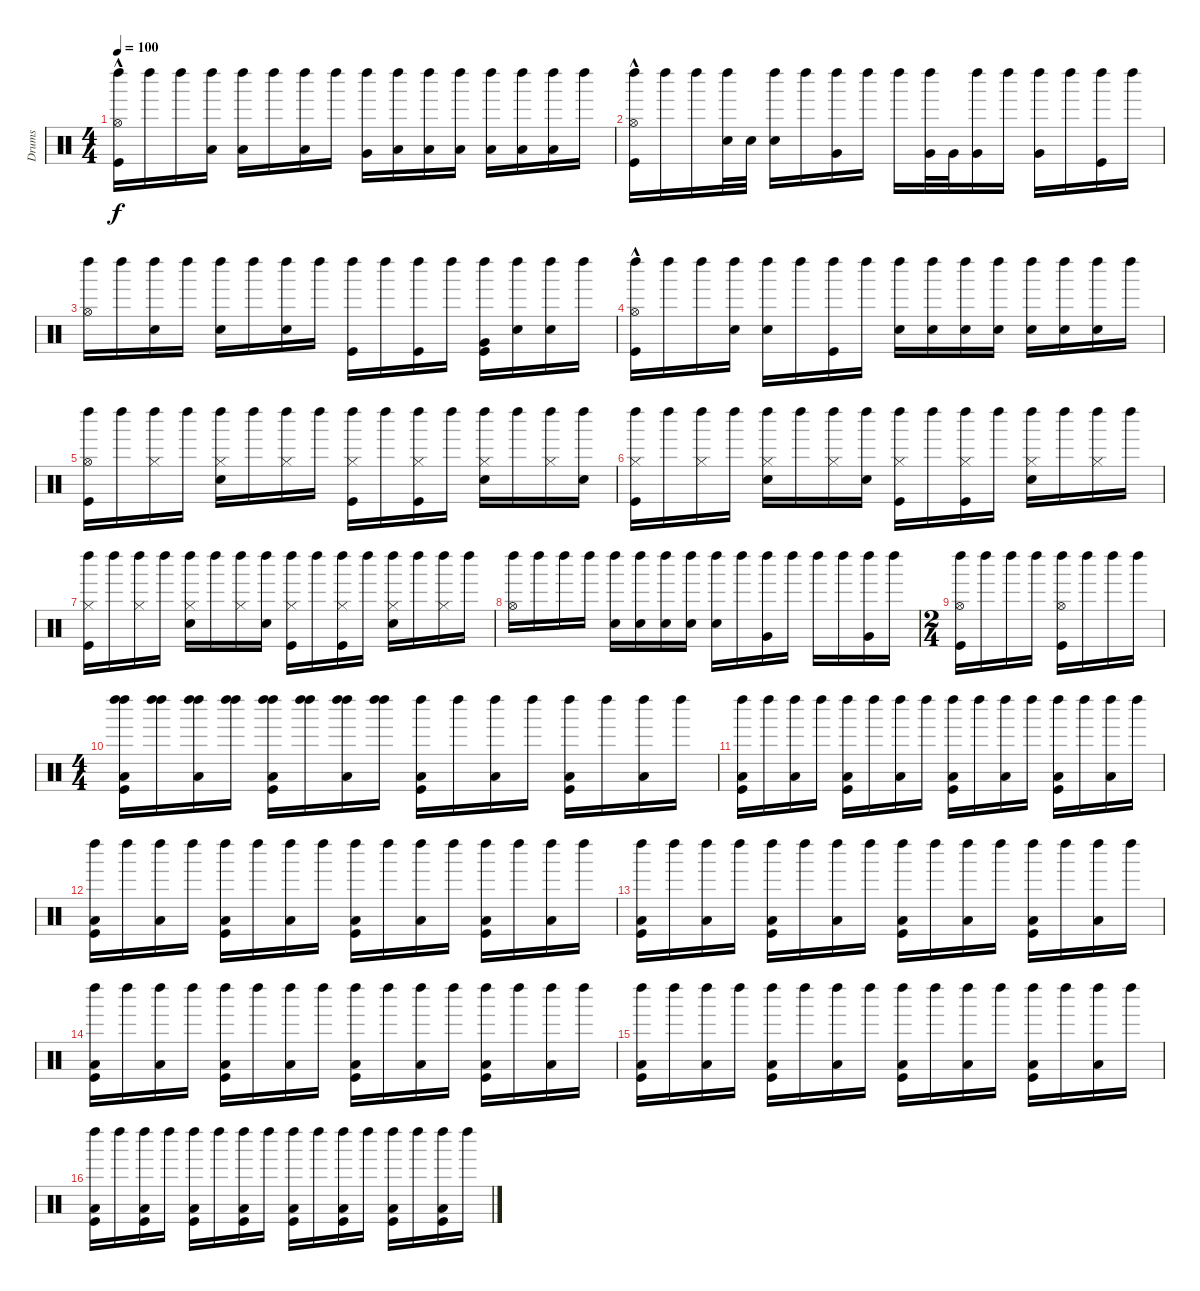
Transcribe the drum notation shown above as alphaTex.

\track ("Drums" "Drums") {instrument percussion}
\staff {score}
\articulation defaults
\ts (4 4)
\tempo 100
\clef neutral
\ks c
("Kick (hit)" "Hi-Hat (open)"{hac} "Left Maraca (hit)").16{dy f} "Left Maraca (hit)".16 "Left Maraca (hit)".16 ("Low Floor Tom (hit)" "Left Maraca (hit)").16 ("Low Floor Tom (hit)" "Left Maraca (hit)").16 "Left Maraca (hit)".16 ("Low Floor Tom (hit)" "Left Maraca (hit)").16 "Left Maraca (hit)".16 ("Very Low Tom (hit)" "Left Maraca (hit)").16 ("Low Floor Tom (hit)" "Left Maraca (hit)").16 ("Low Floor Tom (hit)" "Left Maraca (hit)").16 ("Low Floor Tom (hit)" "Left Maraca (hit)").16 ("Low Floor Tom (hit)" "Left Maraca (hit)").16 ("Low Floor Tom (hit)" "Left Maraca (hit)").16 ("Low Floor Tom (hit)" "Left Maraca (hit)").16 "Left Maraca (hit)".16 |
("Kick (hit)" "Hi-Hat (open)"{hac} "Left Maraca (hit)").16 "Left Maraca (hit)".16 "Left Maraca (hit)".16 ("Electric Snare (hit)" "Left Maraca (hit)").32 "Electric Snare (hit)".32 ("Electric Snare (hit)" "Left Maraca (hit)").16 "Left Maraca (hit)".16 ("Very Low Tom (hit)" "Left Maraca (hit)").16 "Left Maraca (hit)".16 "Left Maraca (hit)".16 ("Very Low Tom (hit)" "Left Maraca (hit)").32 "Very Low Tom (hit)".32 ("Very Low Tom (hit)" "Left Maraca (hit)").16 "Left Maraca (hit)".16 ("Very Low Tom (hit)" "Left Maraca (hit)").16 "Left Maraca (hit)".16 ("Kick (hit)" "Left Maraca (hit)").16 "Left Maraca (hit)".16 |
("Hi-Hat (open)" "Left Maraca (hit)").16 "Left Maraca (hit)".16 ("Electric Snare (hit)" "Left Maraca (hit)").16 "Left Maraca (hit)".16 ("Electric Snare (hit)" "Left Maraca (hit)").16 "Left Maraca (hit)".16 ("Electric Snare (hit)" "Left Maraca (hit)").16 "Left Maraca (hit)".16 ("Kick (hit)" "Left Maraca (hit)").16 "Left Maraca (hit)".16 ("Kick (hit)" "Left Maraca (hit)").16 "Left Maraca (hit)".16 ("Kick (hit)" "Very Low Tom (hit)" "Left Maraca (hit)").16 ("Electric Snare (hit)" "Left Maraca (hit)").16 ("Electric Snare (hit)" "Left Maraca (hit)").16 "Left Maraca (hit)".16 |
("Kick (hit)" "Hi-Hat (open)"{hac} "Left Maraca (hit)").16 "Left Maraca (hit)".16 "Left Maraca (hit)".16 ("Electric Snare (hit)" "Left Maraca (hit)").16 ("Electric Snare (hit)" "Left Maraca (hit)").16 "Left Maraca (hit)".16 ("Kick (hit)" "Left Maraca (hit)").16 "Left Maraca (hit)".16 ("Electric Snare (hit)" "Left Maraca (hit)").16 ("Electric Snare (hit)" "Left Maraca (hit)").16 ("Electric Snare (hit)" "Left Maraca (hit)").16 ("Electric Snare (hit)" "Left Maraca (hit)").16 ("Electric Snare (hit)" "Left Maraca (hit)").16 ("Electric Snare (hit)" "Left Maraca (hit)").16 ("Electric Snare (hit)" "Left Maraca (hit)").16 "Left Maraca (hit)".16 |
("Kick (hit)" "Hi-Hat (open)" "Left Maraca (hit)").16 "Left Maraca (hit)".16 ("Hi-Hat (closed)" "Left Maraca (hit)").16 "Left Maraca (hit)".16 ("Hi-Hat (closed)" "Electric Snare (hit)" "Left Maraca (hit)").16 "Left Maraca (hit)".16 ("Hi-Hat (closed)" "Left Maraca (hit)").16 "Left Maraca (hit)".16 ("Hi-Hat (closed)" "Kick (hit)" "Left Maraca (hit)").16 "Left Maraca (hit)".16 ("Hi-Hat (closed)" "Kick (hit)" "Left Maraca (hit)").16 "Left Maraca (hit)".16 ("Hi-Hat (closed)" "Electric Snare (hit)" "Left Maraca (hit)").16 "Left Maraca (hit)".16 ("Hi-Hat (closed)" "Left Maraca (hit)").16 ("Electric Snare (hit)" "Left Maraca (hit)").16 |
("Hi-Hat (closed)" "Kick (hit)" "Left Maraca (hit)").16 "Left Maraca (hit)".16 ("Hi-Hat (closed)" "Left Maraca (hit)").16 "Left Maraca (hit)".16 ("Hi-Hat (closed)" "Electric Snare (hit)" "Left Maraca (hit)").16 "Left Maraca (hit)".16 ("Hi-Hat (closed)" "Left Maraca (hit)").16 ("Electric Snare (hit)" "Left Maraca (hit)").16 ("Hi-Hat (closed)" "Kick (hit)" "Left Maraca (hit)").16 "Left Maraca (hit)".16 ("Hi-Hat (closed)" "Kick (hit)" "Left Maraca (hit)").16 "Left Maraca (hit)".16 ("Hi-Hat (closed)" "Electric Snare (hit)" "Left Maraca (hit)").16 "Left Maraca (hit)".16 ("Hi-Hat (closed)" "Left Maraca (hit)").16 "Left Maraca (hit)".16 |
("Kick (hit)" "Hi-Hat (closed)" "Left Maraca (hit)").16 "Left Maraca (hit)".16 ("Hi-Hat (closed)" "Left Maraca (hit)").16 "Left Maraca (hit)".16 ("Hi-Hat (closed)" "Electric Snare (hit)" "Left Maraca (hit)").16 "Left Maraca (hit)".16 ("Hi-Hat (closed)" "Left Maraca (hit)").16 ("Electric Snare (hit)" "Left Maraca (hit)").16 ("Hi-Hat (closed)" "Kick (hit)" "Left Maraca (hit)").16 "Left Maraca (hit)".16 ("Hi-Hat (closed)" "Kick (hit)" "Left Maraca (hit)").16 "Left Maraca (hit)".16 ("Hi-Hat (closed)" "Electric Snare (hit)" "Left Maraca (hit)").16 "Left Maraca (hit)".16 ("Hi-Hat (closed)" "Left Maraca (hit)").16 "Left Maraca (hit)".16 |
("Hi-Hat (open)" "Left Maraca (hit)").16 "Left Maraca (hit)".16 "Left Maraca (hit)".16 "Left Maraca (hit)".16 ("Electric Snare (hit)" "Left Maraca (hit)").16 ("Electric Snare (hit)" "Left Maraca (hit)").16 ("Electric Snare (hit)" "Left Maraca (hit)").16 ("Electric Snare (hit)" "Left Maraca (hit)").16 ("Electric Snare (hit)" "Left Maraca (hit)").16 "Left Maraca (hit)".16 ("Very Low Tom (hit)" "Left Maraca (hit)").16 "Left Maraca (hit)".16 "Left Maraca (hit)".16 "Left Maraca (hit)".16 ("Very Low Tom (hit)" "Left Maraca (hit)").16 "Left Maraca (hit)".16 |
\ts (2 4)
("Kick (hit)" "Hi-Hat (open)" "Left Maraca (hit)").16 "Left Maraca (hit)".16 "Left Maraca (hit)".16 "Left Maraca (hit)".16 ("Kick (hit)" "Hi-Hat (open)" "Left Maraca (hit)").16 "Left Maraca (hit)".16 "Left Maraca (hit)".16 "Left Maraca (hit)".16 |
\ts (4 4)
("Kick (hit)" "Low Floor Tom (hit)" "Left Maraca (hit)" "Left Maraca (hit)").16 ("Left Maraca (hit)" "Left Maraca (hit)").16 ("Low Floor Tom (hit)" "Left Maraca (hit)" "Left Maraca (hit)").16 ("Left Maraca (hit)" "Left Maraca (hit)").16 ("Kick (hit)" "Low Floor Tom (hit)" "Left Maraca (hit)" "Left Maraca (hit)").16 ("Left Maraca (hit)" "Left Maraca (hit)").16 ("Low Floor Tom (hit)" "Left Maraca (hit)" "Left Maraca (hit)").16 ("Left Maraca (hit)" "Left Maraca (hit)").16 ("Kick (hit)" "Low Floor Tom (hit)" "Left Maraca (hit)").16 "Left Maraca (hit)".16 ("Low Floor Tom (hit)" "Left Maraca (hit)").16 "Left Maraca (hit)".16 ("Kick (hit)" "Low Floor Tom (hit)" "Left Maraca (hit)").16 "Left Maraca (hit)".16 ("Low Floor Tom (hit)" "Left Maraca (hit)").16 "Left Maraca (hit)".16 |
("Kick (hit)" "Low Floor Tom (hit)" "Left Maraca (hit)").16 "Left Maraca (hit)".16 ("Low Floor Tom (hit)" "Left Maraca (hit)").16 "Left Maraca (hit)".16 ("Kick (hit)" "Low Floor Tom (hit)" "Left Maraca (hit)").16 "Left Maraca (hit)".16 ("Low Floor Tom (hit)" "Left Maraca (hit)").16 "Left Maraca (hit)".16 ("Kick (hit)" "Low Floor Tom (hit)" "Left Maraca (hit)").16 "Left Maraca (hit)".16 ("Low Floor Tom (hit)" "Left Maraca (hit)").16 "Left Maraca (hit)".16 ("Kick (hit)" "Low Floor Tom (hit)" "Left Maraca (hit)").16 "Left Maraca (hit)".16 ("Low Floor Tom (hit)" "Left Maraca (hit)").16 "Left Maraca (hit)".16 |
("Kick (hit)" "Low Floor Tom (hit)" "Left Maraca (hit)").16 "Left Maraca (hit)".16 ("Low Floor Tom (hit)" "Left Maraca (hit)").16 "Left Maraca (hit)".16 ("Kick (hit)" "Low Floor Tom (hit)" "Left Maraca (hit)").16 "Left Maraca (hit)".16 ("Low Floor Tom (hit)" "Left Maraca (hit)").16 "Left Maraca (hit)".16 ("Kick (hit)" "Low Floor Tom (hit)" "Left Maraca (hit)").16 "Left Maraca (hit)".16 ("Low Floor Tom (hit)" "Left Maraca (hit)").16 "Left Maraca (hit)".16 ("Kick (hit)" "Low Floor Tom (hit)" "Left Maraca (hit)").16 "Left Maraca (hit)".16 ("Low Floor Tom (hit)" "Left Maraca (hit)").16 "Left Maraca (hit)".16 |
("Kick (hit)" "Low Floor Tom (hit)" "Left Maraca (hit)").16 "Left Maraca (hit)".16 ("Low Floor Tom (hit)" "Left Maraca (hit)").16 "Left Maraca (hit)".16 ("Kick (hit)" "Low Floor Tom (hit)" "Left Maraca (hit)").16 "Left Maraca (hit)".16 ("Low Floor Tom (hit)" "Left Maraca (hit)").16 "Left Maraca (hit)".16 ("Kick (hit)" "Low Floor Tom (hit)" "Left Maraca (hit)").16 "Left Maraca (hit)".16 ("Low Floor Tom (hit)" "Left Maraca (hit)").16 "Left Maraca (hit)".16 ("Kick (hit)" "Low Floor Tom (hit)" "Left Maraca (hit)").16 "Left Maraca (hit)".16 ("Low Floor Tom (hit)" "Left Maraca (hit)").16 "Left Maraca (hit)".16 |
("Kick (hit)" "Low Floor Tom (hit)" "Left Maraca (hit)").16 "Left Maraca (hit)".16 ("Low Floor Tom (hit)" "Left Maraca (hit)").16 "Left Maraca (hit)".16 ("Kick (hit)" "Low Floor Tom (hit)" "Left Maraca (hit)").16 "Left Maraca (hit)".16 ("Low Floor Tom (hit)" "Left Maraca (hit)").16 "Left Maraca (hit)".16 ("Kick (hit)" "Low Floor Tom (hit)" "Left Maraca (hit)").16 "Left Maraca (hit)".16 ("Low Floor Tom (hit)" "Left Maraca (hit)").16 "Left Maraca (hit)".16 ("Kick (hit)" "Low Floor Tom (hit)" "Left Maraca (hit)").16 "Left Maraca (hit)".16 ("Low Floor Tom (hit)" "Left Maraca (hit)").16 "Left Maraca (hit)".16 |
("Kick (hit)" "Low Floor Tom (hit)" "Left Maraca (hit)").16 "Left Maraca (hit)".16 ("Low Floor Tom (hit)" "Left Maraca (hit)").16 "Left Maraca (hit)".16 ("Kick (hit)" "Low Floor Tom (hit)" "Left Maraca (hit)").16 "Left Maraca (hit)".16 ("Low Floor Tom (hit)" "Left Maraca (hit)").16 "Left Maraca (hit)".16 ("Kick (hit)" "Low Floor Tom (hit)" "Left Maraca (hit)").16 "Left Maraca (hit)".16 ("Low Floor Tom (hit)" "Left Maraca (hit)").16 "Left Maraca (hit)".16 ("Kick (hit)" "Low Floor Tom (hit)" "Left Maraca (hit)").16 "Left Maraca (hit)".16 ("Low Floor Tom (hit)" "Left Maraca (hit)").16 "Left Maraca (hit)".16 |
("Kick (hit)" "Low Floor Tom (hit)" "Left Maraca (hit)").16 "Left Maraca (hit)".16 ("Kick (hit)" "Low Floor Tom (hit)" "Left Maraca (hit)").16 "Left Maraca (hit)".16 ("Kick (hit)" "Low Floor Tom (hit)" "Left Maraca (hit)").16 "Left Maraca (hit)".16 ("Kick (hit)" "Low Floor Tom (hit)" "Left Maraca (hit)").16 "Left Maraca (hit)".16 ("Kick (hit)" "Low Floor Tom (hit)" "Left Maraca (hit)").16 "Left Maraca (hit)".16 ("Kick (hit)" "Low Floor Tom (hit)" "Left Maraca (hit)").16 "Left Maraca (hit)".16 ("Kick (hit)" "Low Floor Tom (hit)" "Left Maraca (hit)").16 "Left Maraca (hit)".16 ("Kick (hit)" "Low Floor Tom (hit)" "Left Maraca (hit)").16 "Left Maraca (hit)".16
